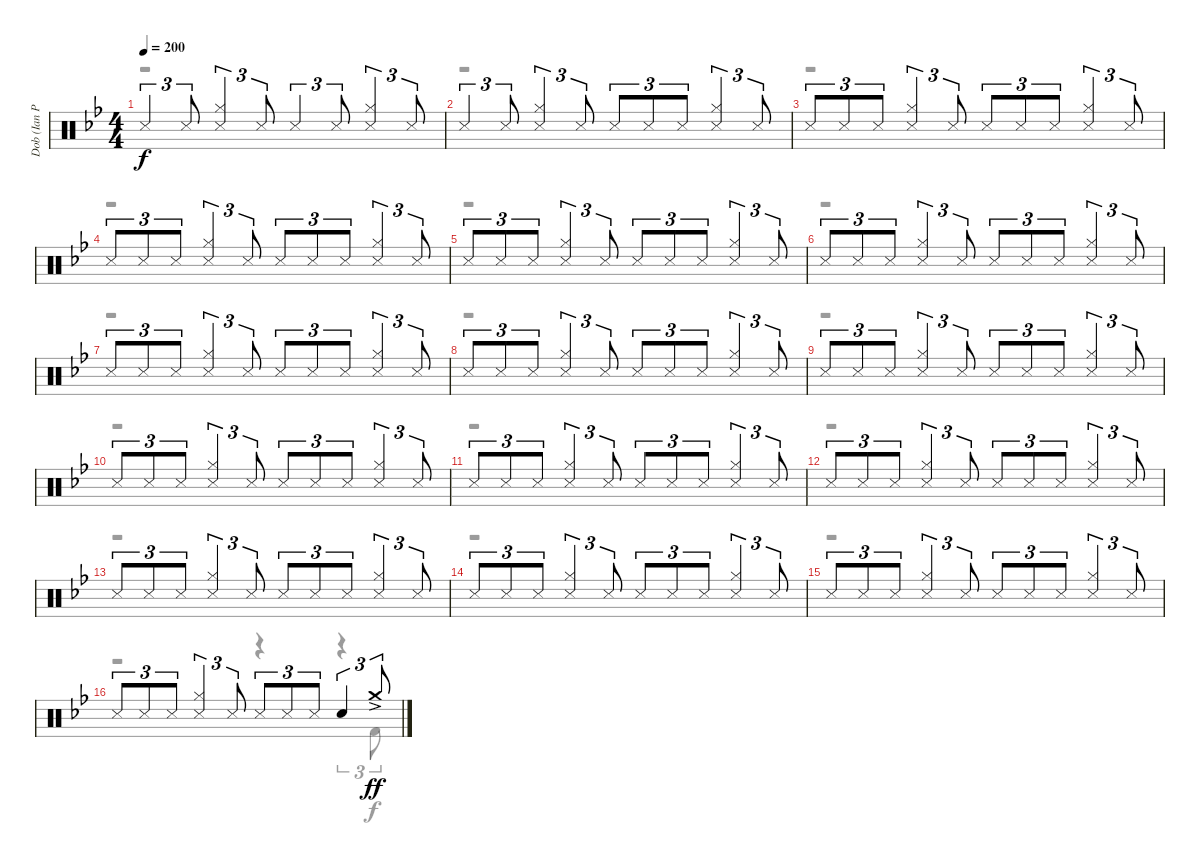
\track ("Dob (Ian Paice)" "Dob (Ian P") {instrument percussion}
\staff {score}
\articulation defaults
\voice
\ts (4 4)
\tempo 200
\clef neutral
\ks bb "Snare (side stick) 3".4{tu (3 2) dy f} "Snare (side stick) 3".8{tu (3 2)}
("Hi-Hat (closed)" "Snare (side stick) 3").4{tu (3 2)} "Snare (side stick) 3".8{tu (3 2)} "Snare (side stick) 3".4{tu (3 2)} "Snare (side stick) 3".8{tu (3 2)} ("Hi-Hat (closed)" "Snare (side stick) 3").4{tu (3 2)} "Snare (side stick) 3".8{tu (3 2)} |
"Snare (side stick) 3".4{tu (3 2)} "Snare (side stick) 3".8{tu (3 2)} ("Hi-Hat (closed)" "Snare (side stick) 3").4{tu (3 2)} "Snare (side stick) 3".8{tu (3 2)} "Snare (side stick) 3".8{tu (3 2)} "Snare (side stick) 3".8{tu (3 2)} "Snare (side stick) 3".8{tu (3 2)} ("Hi-Hat (closed)" "Snare (side stick) 3").4{tu (3 2)} "Snare (side stick) 3".8{tu (3 2)} |
"Snare (side stick) 3".8{tu (3 2)} "Snare (side stick) 3".8{tu (3 2)} "Snare (side stick) 3".8{tu (3 2)} ("Hi-Hat (closed)" "Snare (side stick) 3").4{tu (3 2)} "Snare (side stick) 3".8{tu (3 2)} "Snare (side stick) 3".8{tu (3 2)} "Snare (side stick) 3".8{tu (3 2)} "Snare (side stick) 3".8{tu (3 2)} ("Hi-Hat (closed)" "Snare (side stick) 3").4{tu (3 2)} "Snare (side stick) 3".8{tu (3 2)} |
"Snare (side stick) 3".8{tu (3 2)} "Snare (side stick) 3".8{tu (3 2)} "Snare (side stick) 3".8{tu (3 2)} ("Hi-Hat (closed)" "Snare (side stick) 3").4{tu (3 2)} "Snare (side stick) 3".8{tu (3 2)} "Snare (side stick) 3".8{tu (3 2)} "Snare (side stick) 3".8{tu (3 2)} "Snare (side stick) 3".8{tu (3 2)} ("Hi-Hat (closed)" "Snare (side stick) 3").4{tu (3 2)} "Snare (side stick) 3".8{tu (3 2)} |
"Snare (side stick) 3".8{tu (3 2)} "Snare (side stick) 3".8{tu (3 2)} "Snare (side stick) 3".8{tu (3 2)} ("Hi-Hat (closed)" "Snare (side stick) 3").4{tu (3 2)} "Snare (side stick) 3".8{tu (3 2)} "Snare (side stick) 3".8{tu (3 2)} "Snare (side stick) 3".8{tu (3 2)} "Snare (side stick) 3".8{tu (3 2)} ("Hi-Hat (closed)" "Snare (side stick) 3").4{tu (3 2)} "Snare (side stick) 3".8{tu (3 2)} |
"Snare (side stick) 3".8{tu (3 2)} "Snare (side stick) 3".8{tu (3 2)} "Snare (side stick) 3".8{tu (3 2)} ("Hi-Hat (closed)" "Snare (side stick) 3").4{tu (3 2)} "Snare (side stick) 3".8{tu (3 2)} "Snare (side stick) 3".8{tu (3 2)} "Snare (side stick) 3".8{tu (3 2)} "Snare (side stick) 3".8{tu (3 2)} ("Hi-Hat (closed)" "Snare (side stick) 3").4{tu (3 2)} "Snare (side stick) 3".8{tu (3 2)} |
"Snare (side stick) 3".8{tu (3 2)} "Snare (side stick) 3".8{tu (3 2)} "Snare (side stick) 3".8{tu (3 2)} ("Hi-Hat (closed)" "Snare (side stick) 3").4{tu (3 2)} "Snare (side stick) 3".8{tu (3 2)} "Snare (side stick) 3".8{tu (3 2)} "Snare (side stick) 3".8{tu (3 2)} "Snare (side stick) 3".8{tu (3 2)} ("Hi-Hat (closed)" "Snare (side stick) 3").4{tu (3 2)} "Snare (side stick) 3".8{tu (3 2)} |
"Snare (side stick) 3".8{tu (3 2)} "Snare (side stick) 3".8{tu (3 2)} "Snare (side stick) 3".8{tu (3 2)} ("Hi-Hat (closed)" "Snare (side stick) 3").4{tu (3 2)} "Snare (side stick) 3".8{tu (3 2)} "Snare (side stick) 3".8{tu (3 2)} "Snare (side stick) 3".8{tu (3 2)} "Snare (side stick) 3".8{tu (3 2)} ("Hi-Hat (closed)" "Snare (side stick) 3").4{tu (3 2)} "Snare (side stick) 3".8{tu (3 2)} |
"Snare (side stick) 3".8{tu (3 2)} "Snare (side stick) 3".8{tu (3 2)} "Snare (side stick) 3".8{tu (3 2)} ("Hi-Hat (closed)" "Snare (side stick) 3").4{tu (3 2)} "Snare (side stick) 3".8{tu (3 2)} "Snare (side stick) 3".8{tu (3 2)} "Snare (side stick) 3".8{tu (3 2)} "Snare (side stick) 3".8{tu (3 2)} ("Hi-Hat (closed)" "Snare (side stick) 3").4{tu (3 2)} "Snare (side stick) 3".8{tu (3 2)} |
"Snare (side stick) 3".8{tu (3 2)} "Snare (side stick) 3".8{tu (3 2)} "Snare (side stick) 3".8{tu (3 2)} ("Hi-Hat (closed)" "Snare (side stick) 3").4{tu (3 2)} "Snare (side stick) 3".8{tu (3 2)} "Snare (side stick) 3".8{tu (3 2)} "Snare (side stick) 3".8{tu (3 2)} "Snare (side stick) 3".8{tu (3 2)} ("Hi-Hat (closed)" "Snare (side stick) 3").4{tu (3 2)} "Snare (side stick) 3".8{tu (3 2)} |
"Snare (side stick) 3".8{tu (3 2)} "Snare (side stick) 3".8{tu (3 2)} "Snare (side stick) 3".8{tu (3 2)} ("Hi-Hat (closed)" "Snare (side stick) 3").4{tu (3 2)} "Snare (side stick) 3".8{tu (3 2)} "Snare (side stick) 3".8{tu (3 2)} "Snare (side stick) 3".8{tu (3 2)} "Snare (side stick) 3".8{tu (3 2)} ("Hi-Hat (closed)" "Snare (side stick) 3").4{tu (3 2)} "Snare (side stick) 3".8{tu (3 2)} |
"Snare (side stick) 3".8{tu (3 2)} "Snare (side stick) 3".8{tu (3 2)} "Snare (side stick) 3".8{tu (3 2)} ("Hi-Hat (closed)" "Snare (side stick) 3").4{tu (3 2)} "Snare (side stick) 3".8{tu (3 2)} "Snare (side stick) 3".8{tu (3 2)} "Snare (side stick) 3".8{tu (3 2)} "Snare (side stick) 3".8{tu (3 2)} ("Hi-Hat (closed)" "Snare (side stick) 3").4{tu (3 2)} "Snare (side stick) 3".8{tu (3 2)} |
"Snare (side stick) 3".8{tu (3 2)} "Snare (side stick) 3".8{tu (3 2)} "Snare (side stick) 3".8{tu (3 2)} ("Hi-Hat (closed)" "Snare (side stick) 3").4{tu (3 2)} "Snare (side stick) 3".8{tu (3 2)} "Snare (side stick) 3".8{tu (3 2)} "Snare (side stick) 3".8{tu (3 2)} "Snare (side stick) 3".8{tu (3 2)} ("Hi-Hat (closed)" "Snare (side stick) 3").4{tu (3 2)} "Snare (side stick) 3".8{tu (3 2)} |
"Snare (side stick) 3".8{tu (3 2)} "Snare (side stick) 3".8{tu (3 2)} "Snare (side stick) 3".8{tu (3 2)} ("Hi-Hat (closed)" "Snare (side stick) 3").4{tu (3 2)} "Snare (side stick) 3".8{tu (3 2)} "Snare (side stick) 3".8{tu (3 2)} "Snare (side stick) 3".8{tu (3 2)} "Snare (side stick) 3".8{tu (3 2)} ("Hi-Hat (closed)" "Snare (side stick) 3").4{tu (3 2)} "Snare (side stick) 3".8{tu (3 2)} |
"Snare (side stick) 3".8{tu (3 2)} "Snare (side stick) 3".8{tu (3 2)} "Snare (side stick) 3".8{tu (3 2)} ("Hi-Hat (closed)" "Snare (side stick) 3").4{tu (3 2)} "Snare (side stick) 3".8{tu (3 2)} "Snare (side stick) 3".8{tu (3 2)} "Snare (side stick) 3".8{tu (3 2)} "Snare (side stick) 3".8{tu (3 2)} ("Hi-Hat (closed)" "Snare (side stick) 3").4{tu (3 2)} "Snare (side stick) 3".8{tu (3 2)} |
"Snare (side stick) 3".8{tu (3 2)} "Snare (side stick) 3".8{tu (3 2)} "Snare (side stick) 3".8{tu (3 2)} ("Hi-Hat (closed)" "Snare (side stick) 3").4{tu (3 2)} "Snare (side stick) 3".8{tu (3 2)} "Snare (side stick) 3".8{tu (3 2)} "Snare (side stick) 3".8{tu (3 2)} "Snare (side stick) 3".8{tu (3 2)} "Electric Snare (hit)".4{tu (3 2) volume 11} "Crash medium (hit)"{ac}.8{tu (3 2) dy ff}
\voice
\clef neutral
\ottava regular
\simile none
\ks bb
r.1{dy f} |
r.1 |
r.1 |
r.1 |
r.1 |
r.1 |
r.1 |
r.1 |
r.1 |
r.1 |
r.1 |
r.1 |
r.1 |
r.1 |
r.1 |
r.2 r.4 r.4{tu (3 2)} "Kick (hit) 2".8{tu (3 2)}
